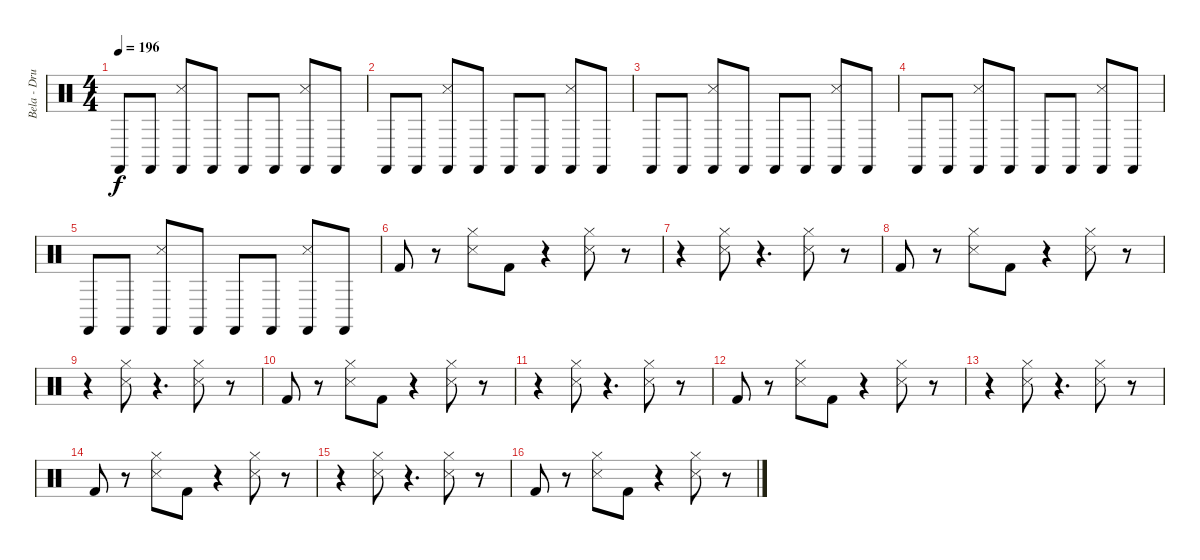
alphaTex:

\track ("Bela - Drums" "Bela - Dru") {instrument percussion}
\staff {score}
\articulation defaults
\ts (4 4)
\tempo 196
\clef neutral
\ks c "Castanets (hit)".8{dy f} "Castanets (hit)".8
("Snare (side stick) 3" "Castanets (hit)").8 "Castanets (hit)".8 "Castanets (hit)".8 "Castanets (hit)".8 ("Castanets (hit)" "Snare (side stick) 3").8 "Castanets (hit)".8 |
"Castanets (hit)".8 "Castanets (hit)".8 ("Castanets (hit)" "Snare (side stick) 3").8 "Castanets (hit)".8 "Castanets (hit)".8 "Castanets (hit)".8 ("Snare (side stick) 3" "Castanets (hit)").8 "Castanets (hit)".8 |
"Castanets (hit)".8 "Castanets (hit)".8 ("Snare (side stick) 3" "Castanets (hit)").8 "Castanets (hit)".8 "Castanets (hit)".8 "Castanets (hit)".8 ("Castanets (hit)" "Snare (side stick) 3").8 "Castanets (hit)".8 |
"Castanets (hit)".8 "Castanets (hit)".8 ("Castanets (hit)" "Snare (side stick) 3").8 "Castanets (hit)".8 "Castanets (hit)".8 "Castanets (hit)".8 ("Snare (side stick) 3" "Castanets (hit)").8 "Castanets (hit)".8 |
"Castanets (hit)".8 "Castanets (hit)".8 ("Snare (side stick) 3" "Castanets (hit)").8 "Castanets (hit)".8 "Castanets (hit)".8 "Castanets (hit)".8 ("Castanets (hit)" "Snare (side stick) 3").8 "Castanets (hit)".8 |
"Kick (hit) 2".8 r.8 ("Hi-Hat (closed)" "Snare (side stick) 3").8 "Kick (hit) 2".8 r.4 ("Hi-Hat (closed)" "Snare (side stick) 3").8 r.8 |
r.4 ("Hi-Hat (closed)" "Snare (side stick) 3").8 r.4{d} ("Hi-Hat (closed)" "Snare (side stick) 3").8 r.8 |
"Kick (hit) 2".8 r.8 ("Hi-Hat (closed)" "Snare (side stick) 3").8 "Kick (hit) 2".8 r.4 ("Hi-Hat (closed)" "Snare (side stick) 3").8 r.8 |
r.4 ("Hi-Hat (closed)" "Snare (side stick) 3").8 r.4{d} ("Hi-Hat (closed)" "Snare (side stick) 3").8 r.8 |
"Kick (hit) 2".8 r.8 ("Hi-Hat (closed)" "Snare (side stick) 3").8 "Kick (hit) 2".8 r.4 ("Hi-Hat (closed)" "Snare (side stick) 3").8 r.8 |
r.4 ("Hi-Hat (closed)" "Snare (side stick) 3").8 r.4{d} ("Hi-Hat (closed)" "Snare (side stick) 3").8 r.8 |
"Kick (hit) 2".8 r.8 ("Hi-Hat (closed)" "Snare (side stick) 3").8 "Kick (hit) 2".8 r.4 ("Hi-Hat (closed)" "Snare (side stick) 3").8 r.8 |
r.4 ("Hi-Hat (closed)" "Snare (side stick) 3").8 r.4{d} ("Hi-Hat (closed)" "Snare (side stick) 3").8 r.8 |
"Kick (hit) 2".8 r.8 ("Hi-Hat (closed)" "Snare (side stick) 3").8 "Kick (hit) 2".8 r.4 ("Hi-Hat (closed)" "Snare (side stick) 3").8 r.8 |
r.4 ("Hi-Hat (closed)" "Snare (side stick) 3").8 r.4{d} ("Hi-Hat (closed)" "Snare (side stick) 3").8 r.8 |
"Kick (hit) 2".8 r.8 ("Hi-Hat (closed)" "Snare (side stick) 3").8 "Kick (hit) 2".8 r.4 ("Hi-Hat (closed)" "Snare (side stick) 3").8 r.8
